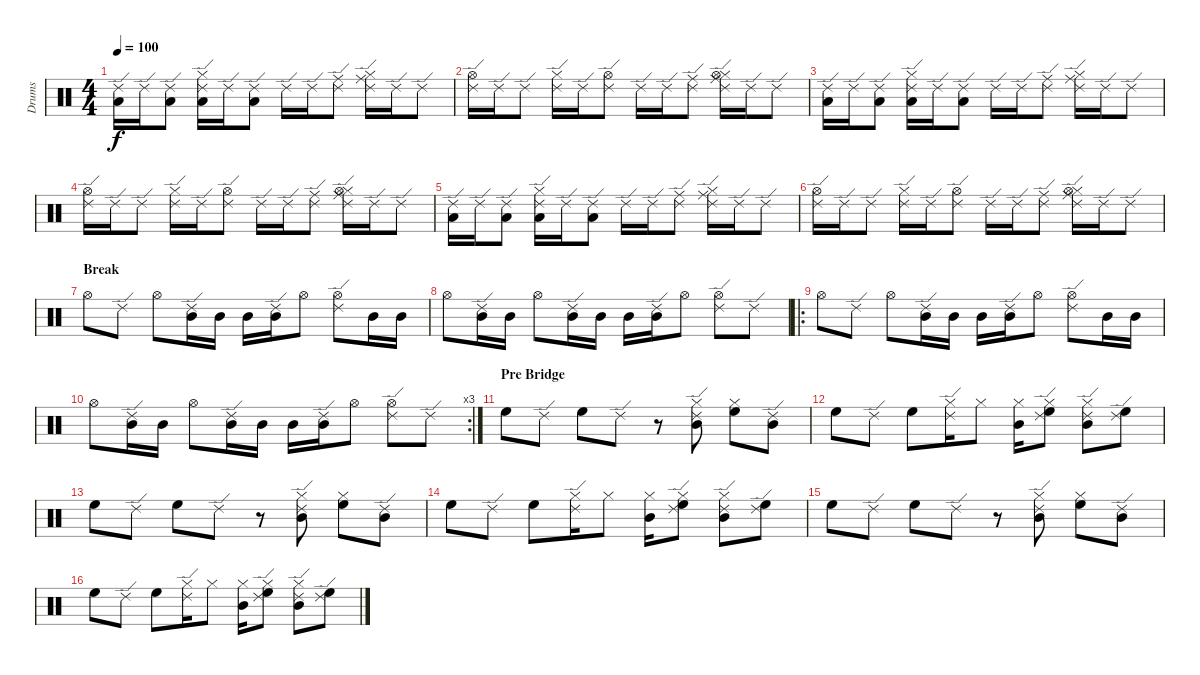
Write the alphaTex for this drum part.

\track ("Drums" "Drums") {instrument percussion}
\staff {score}
\articulation defaults
\ts (4 4)
\tempo 100
\clef neutral
\ks c
("Ride (edge) 2" "Low Tom (hit)").16{dy f} "Ride (edge) 2".16 ("Ride (edge) 2" "Low Tom (hit)").8 ("Ride (edge) 2" "Hi-Hat (closed)" "Low Tom (hit)").16 "Ride (edge) 2".16 ("Ride (edge) 2" "Low Tom (hit)").8 "Ride (edge) 2".16 "Ride (edge) 2".16 ("Ride (edge) 2" "Ride (middle)").8 ("Ride (edge) 2" "Hi-Hat (closed)" "Ride (middle)").16 "Ride (edge) 2".16 "Ride (edge) 2".8 |
("Ride (edge) 2" "Hi-Hat (open)").16 "Ride (edge) 2".16 "Ride (edge) 2".8 ("Ride (edge) 2" "Hi-Hat (closed)").16 "Ride (edge) 2".16 ("Ride (edge) 2" "Hi-Hat (open)").8 "Ride (edge) 2".16 "Ride (edge) 2".16 ("Ride (edge) 2" "Ride (middle)").8 ("Ride (edge) 2" "Hi-Hat (closed)" "Ride (middle)" "Hi-Hat (open)").16 "Ride (edge) 2".16 "Ride (edge) 2".8 |
("Ride (edge) 2" "Low Tom (hit)").16 "Ride (edge) 2".16 ("Ride (edge) 2" "Low Tom (hit)").8 ("Ride (edge) 2" "Hi-Hat (closed)" "Low Tom (hit)").16 "Ride (edge) 2".16 ("Ride (edge) 2" "Low Tom (hit)").8 "Ride (edge) 2".16 "Ride (edge) 2".16 ("Ride (edge) 2" "Ride (middle)").8 ("Ride (edge) 2" "Hi-Hat (closed)" "Ride (middle)").16 "Ride (edge) 2".16 "Ride (edge) 2".8 |
("Ride (edge) 2" "Hi-Hat (open)").16 "Ride (edge) 2".16 "Ride (edge) 2".8 ("Ride (edge) 2" "Hi-Hat (closed)").16 "Ride (edge) 2".16 ("Ride (edge) 2" "Hi-Hat (open)").8 "Ride (edge) 2".16 "Ride (edge) 2".16 ("Ride (edge) 2" "Ride (middle)").8 ("Ride (edge) 2" "Hi-Hat (closed)" "Ride (middle)" "Hi-Hat (open)").16 "Ride (edge) 2".16 "Ride (edge) 2".8 |
("Ride (edge) 2" "Low Tom (hit)").16 "Ride (edge) 2".16 ("Ride (edge) 2" "Low Tom (hit)").8 ("Ride (edge) 2" "Hi-Hat (closed)" "Low Tom (hit)").16 "Ride (edge) 2".16 ("Ride (edge) 2" "Low Tom (hit)").8 "Ride (edge) 2".16 "Ride (edge) 2".16 ("Ride (edge) 2" "Ride (middle)").8 ("Ride (edge) 2" "Hi-Hat (closed)" "Ride (middle)").16 "Ride (edge) 2".16 "Ride (edge) 2".8 |
("Ride (edge) 2" "Hi-Hat (open)").16 "Ride (edge) 2".16 "Ride (edge) 2".8 ("Ride (edge) 2" "Hi-Hat (closed)").16 "Ride (edge) 2".16 ("Ride (edge) 2" "Hi-Hat (open)").8 "Ride (edge) 2".16 "Ride (edge) 2".16 ("Ride (edge) 2" "Ride (middle)").8 ("Ride (edge) 2" "Hi-Hat (closed)" "Ride (middle)" "Hi-Hat (open)").16 "Ride (edge) 2".16 "Ride (edge) 2".8 |
\section ("" "Break")
"Hi-Hat (open)".8 "Ride (edge) 2".8 "Hi-Hat (open)".8 ("Ride (edge) 2" "Mid Tom (hit)").16 "Mid Tom (hit)".16 "Mid Tom (hit)".16 ("Ride (edge) 2" "Mid Tom (hit)").16 "Hi-Hat (open)".8 ("Ride (edge) 2" "Hi-Hat (open)").8 "Mid Tom (hit)".16 "Mid Tom (hit)".16 |
"Hi-Hat (open)".8 ("Ride (edge) 2" "Mid Tom (hit)").16 "Mid Tom (hit)".16 "Hi-Hat (open)".8 ("Ride (edge) 2" "Mid Tom (hit)").16 "Mid Tom (hit)".16 "Mid Tom (hit)".16 ("Ride (edge) 2" "Mid Tom (hit)").16 "Hi-Hat (open)".8 ("Ride (edge) 2" "Hi-Hat (open)").8 "Ride (edge) 2".8 |
\ro "Hi-Hat (open)".8 "Ride (edge) 2".8 "Hi-Hat (open)".8
("Ride (edge) 2" "Mid Tom (hit)").16 "Mid Tom (hit)".16 "Mid Tom (hit)".16 ("Ride (edge) 2" "Mid Tom (hit)").16 "Hi-Hat (open)".8 ("Ride (edge) 2" "Hi-Hat (open)").8 "Mid Tom (hit)".16 "Mid Tom (hit)".16 |
\rc 3 "Hi-Hat (open)".8
("Ride (edge) 2" "Mid Tom (hit)").16 "Mid Tom (hit)".16 "Hi-Hat (open)".8 ("Ride (edge) 2" "Mid Tom (hit)").16 "Mid Tom (hit)".16 "Mid Tom (hit)".16 ("Ride (edge) 2" "Mid Tom (hit)").16 "Hi-Hat (open)".8 ("Ride (edge) 2" "Hi-Hat (open)").8 "Ride (edge) 2".8 |
\section ("" "Pre Bridge")
"High Floor Tom (hit)".8 "Ride (edge) 2".8 "High Floor Tom (hit)".8 "Ride (edge) 2".8 r.8 ("Ride (edge) 2" "Hi-Hat (closed)" "Mid Tom (hit)").8 ("Hi-Hat (closed)" "High Floor Tom (hit)").8 ("Ride (edge) 2" "Mid Tom (hit)").8 |
"High Floor Tom (hit)".8 "Ride (edge) 2".8 "High Floor Tom (hit)".8 ("Ride (edge) 2" "Hi-Hat (closed)").16 "Hi-Hat (closed)".8 ("Hi-Hat (closed)" "Mid Tom (hit)").16 ("Ride (edge) 2" "Hi-Hat (closed)" "High Floor Tom (hit)").8 ("Ride (edge) 2" "Hi-Hat (closed)" "Mid Tom (hit)").8 ("Ride (edge) 2" "High Floor Tom (hit)").8 |
"High Floor Tom (hit)".8 "Ride (edge) 2".8 "High Floor Tom (hit)".8 "Ride (edge) 2".8 r.8 ("Ride (edge) 2" "Hi-Hat (closed)" "Mid Tom (hit)").8 ("Hi-Hat (closed)" "High Floor Tom (hit)").8 ("Ride (edge) 2" "Mid Tom (hit)").8 |
"High Floor Tom (hit)".8 "Ride (edge) 2".8 "High Floor Tom (hit)".8 ("Ride (edge) 2" "Hi-Hat (closed)").16 "Hi-Hat (closed)".8 ("Hi-Hat (closed)" "Mid Tom (hit)").16 ("Ride (edge) 2" "Hi-Hat (closed)" "High Floor Tom (hit)").8 ("Ride (edge) 2" "Hi-Hat (closed)" "Mid Tom (hit)").8 ("Ride (edge) 2" "High Floor Tom (hit)").8 |
"High Floor Tom (hit)".8 "Ride (edge) 2".8 "High Floor Tom (hit)".8 "Ride (edge) 2".8 r.8 ("Ride (edge) 2" "Hi-Hat (closed)" "Mid Tom (hit)").8 ("Hi-Hat (closed)" "High Floor Tom (hit)").8 ("Ride (edge) 2" "Mid Tom (hit)").8 |
"High Floor Tom (hit)".8 "Ride (edge) 2".8 "High Floor Tom (hit)".8 ("Ride (edge) 2" "Hi-Hat (closed)").16 "Hi-Hat (closed)".8 ("Hi-Hat (closed)" "Mid Tom (hit)").16 ("Ride (edge) 2" "Hi-Hat (closed)" "High Floor Tom (hit)").8 ("Ride (edge) 2" "Hi-Hat (closed)" "Mid Tom (hit)").8 ("Ride (edge) 2" "High Floor Tom (hit)").8
